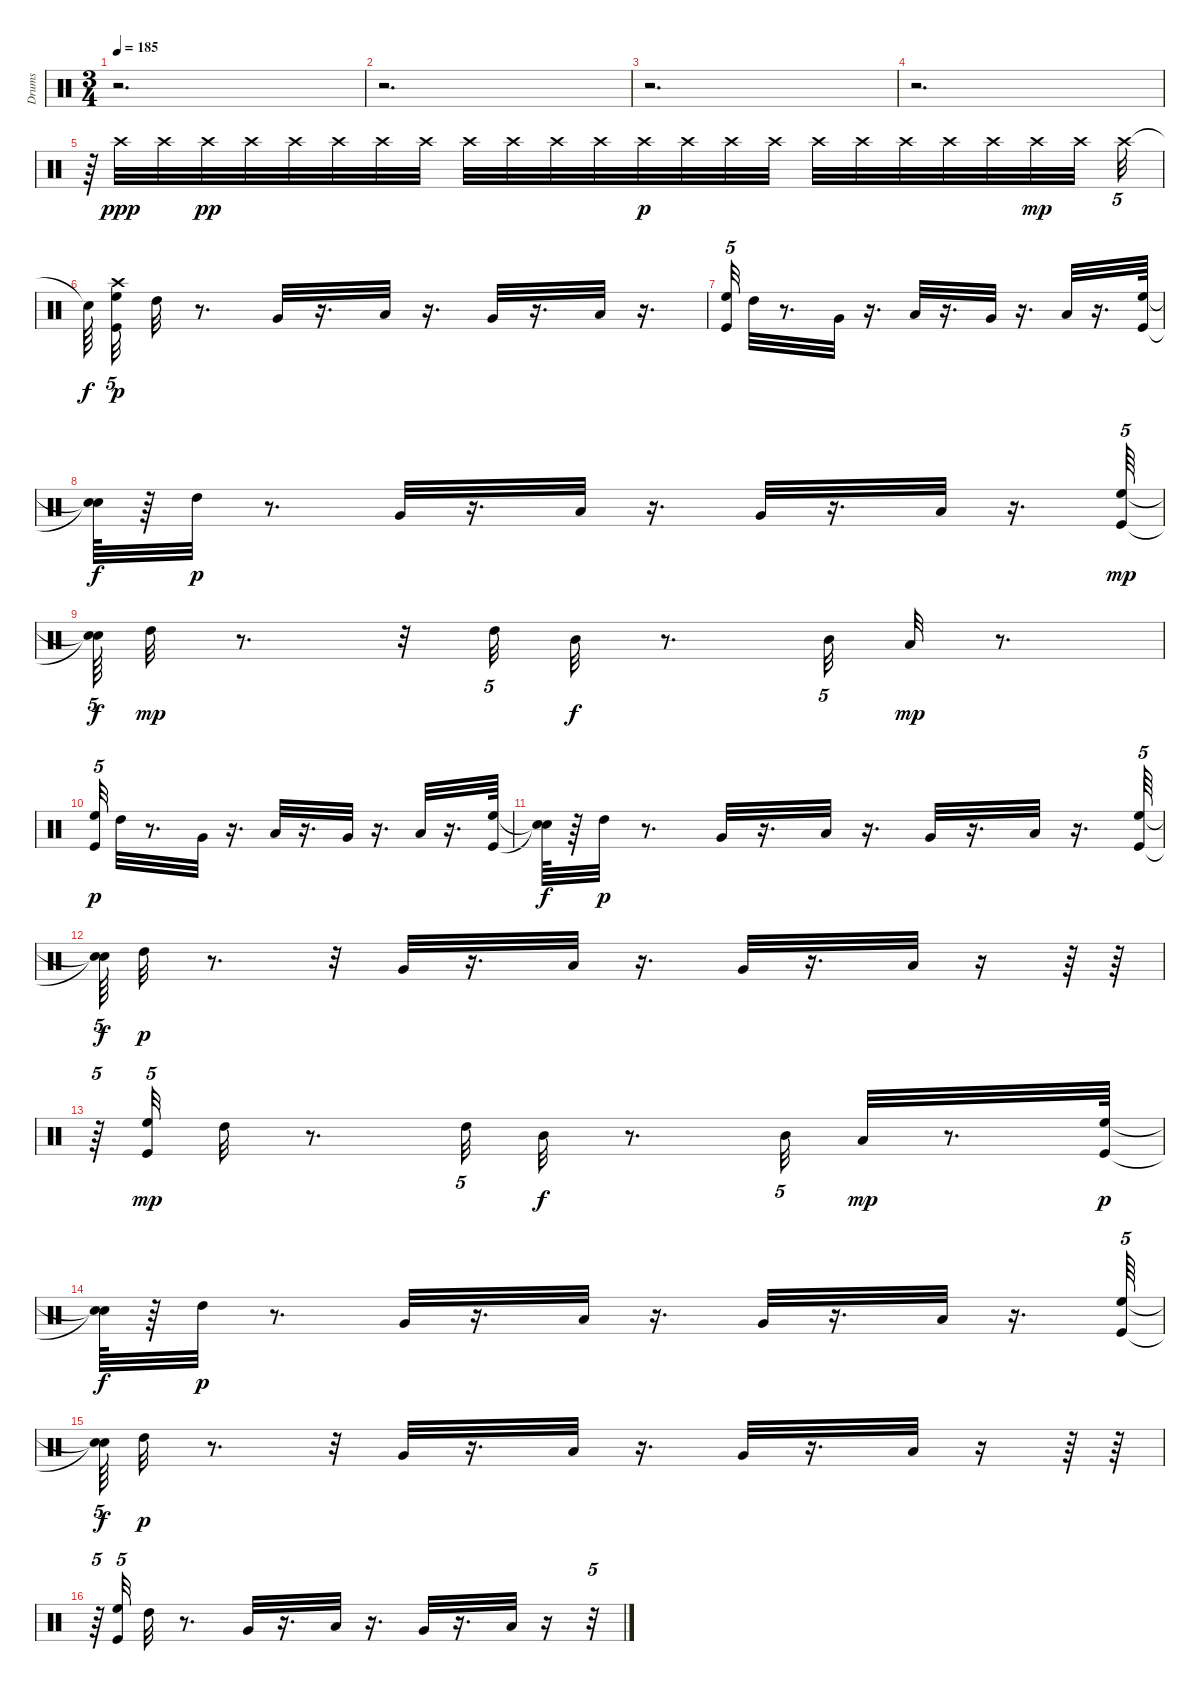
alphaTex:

\track ("Drums" "Drums") {instrument percussion}
\staff {score}
\articulation defaults
\ts (3 4)
\tempo 185
\clef neutral
\ks c
r.2{d dy mp} |
r.2{d} |
r.2{d} |
r.2{d} |
r.64 "Crash high (hit)".32{dy ppp} "Crash high (hit)".32 "Crash high (hit)".32{dy pp} "Crash high (hit)".32 "Crash high (hit)".32 "Crash high (hit)".32 "Crash high (hit)".32 "Crash high (hit)".32 "Crash high (hit)".32 "Crash high (hit)".32 "Crash high (hit)".32 "Crash high (hit)".32 "Crash high (hit)".32{dy p} "Crash high (hit)".32 "Crash high (hit)".32 "Crash high (hit)".32 "Crash high (hit)".32 "Crash high (hit)".32 "Crash high (hit)".32 "Crash high (hit)".32 "Crash high (hit)".32 "Crash high (hit)".32{dy mp} "Crash high (hit)".32{beam splitsecondary} "Crash high (hit)".32{tu (5 4)} |
"Snare (hit)"{t}.64{dy f beam splitsecondary} ("Crash high (hit)" "High Floor Tom (hit)" "Kick (hit)").32{tu (5 4) dy p} "High Tom (hit)".32 r.8{d} "Very Low Tom (hit)".32 r.16{d} "Low Floor Tom (hit)".32 r.16{d} "Very Low Tom (hit)".32 r.16{d} "Low Floor Tom (hit)".32 r.16{d} |
("High Floor Tom (hit)" "Kick (hit)").32{tu (5 4)} "High Tom (hit)".32 r.8{d} "Very Low Tom (hit)".32 r.16{d} "Low Floor Tom (hit)".32 r.16{d} "Very Low Tom (hit)".32 r.16{d} "Low Floor Tom (hit)".32 r.16{d} ("High Floor Tom (hit)" "Kick (hit)").64 |
("Snare (hit)"{t} "Snare (hit)"{t}).64{dy f} r.64 "High Tom (hit)".32{dy p} r.8{d} "Very Low Tom (hit)".32 r.16{d} "Low Floor Tom (hit)".32 r.16{d} "Very Low Tom (hit)".32 r.16{d} "Low Floor Tom (hit)".32 r.16{d} ("High Floor Tom (hit)" "Kick (hit)").64{tu (5 4) dy mp} |
("Snare (hit)"{t} "Snare (hit)"{t}).64{tu (5 4) dy f} "High Tom (hit)".32{dy mp} r.8{d} r.32 "High Tom (hit)".32{tu (5 4)} "Mid Tom (hit)".32{dy f} r.8{d} "Mid Tom (hit)".32{tu (5 4)} "Low Tom (hit)".32{dy mp} r.8{d} |
("High Floor Tom (hit)" "Kick (hit)").32{tu (5 4) dy p} "High Tom (hit)".32 r.8{d} "Very Low Tom (hit)".32 r.16{d} "Low Floor Tom (hit)".32 r.16{d} "Very Low Tom (hit)".32 r.16{d} "Low Floor Tom (hit)".32 r.16{d} ("High Floor Tom (hit)" "Kick (hit)").64 |
("Snare (hit)"{t} "Snare (hit)"{t}).64{dy f} r.64 "High Tom (hit)".32{dy p} r.8{d} "Very Low Tom (hit)".32 r.16{d} "Low Floor Tom (hit)".32 r.16{d} "Very Low Tom (hit)".32 r.16{d} "Low Floor Tom (hit)".32 r.16{d} ("High Floor Tom (hit)" "Kick (hit)").64{tu (5 4)} |
("Snare (hit)"{t} "Snare (hit)"{t}).64{tu (5 4) dy f} "High Tom (hit)".32{dy p} r.8{d} r.32 "Very Low Tom (hit)".32 r.16{d} "Low Floor Tom (hit)".32 r.16{d} "Very Low Tom (hit)".32 r.16{d} "Low Floor Tom (hit)".32 r.16 r.64 r.64 |
r.64{tu (5 4)} ("High Floor Tom (hit)" "Kick (hit)").32{tu (5 4) dy mp} "High Tom (hit)".32 r.8{d} "High Tom (hit)".32{tu (5 4)} "Mid Tom (hit)".32{dy f} r.8{d} "Mid Tom (hit)".32{tu (5 4)} "Low Tom (hit)".32{dy mp} r.8{d} ("High Floor Tom (hit)" "Kick (hit)").64{dy p} |
("Snare (hit)"{t} "Snare (hit)"{t}).64{dy f} r.64 "High Tom (hit)".32{dy p} r.8{d} "Very Low Tom (hit)".32 r.16{d} "Low Floor Tom (hit)".32 r.16{d} "Very Low Tom (hit)".32 r.16{d} "Low Floor Tom (hit)".32 r.16{d} ("High Floor Tom (hit)" "Kick (hit)").64{tu (5 4)} |
("Snare (hit)"{t} "Snare (hit)"{t}).64{tu (5 4) dy f} "High Tom (hit)".32{dy p} r.8{d} r.32 "Very Low Tom (hit)".32 r.16{d} "Low Floor Tom (hit)".32 r.16{d} "Very Low Tom (hit)".32 r.16{d} "Low Floor Tom (hit)".32 r.16 r.64 r.64 |
r.64{tu (5 4)} ("High Floor Tom (hit)" "Kick (hit)").32{tu (5 4)} "High Tom (hit)".32 r.8{d} "Very Low Tom (hit)".32 r.16{d} "Low Floor Tom (hit)".32 r.16{d} "Very Low Tom (hit)".32 r.16{d} "Low Floor Tom (hit)".32 r.16 r.32{tu (5 4)}
